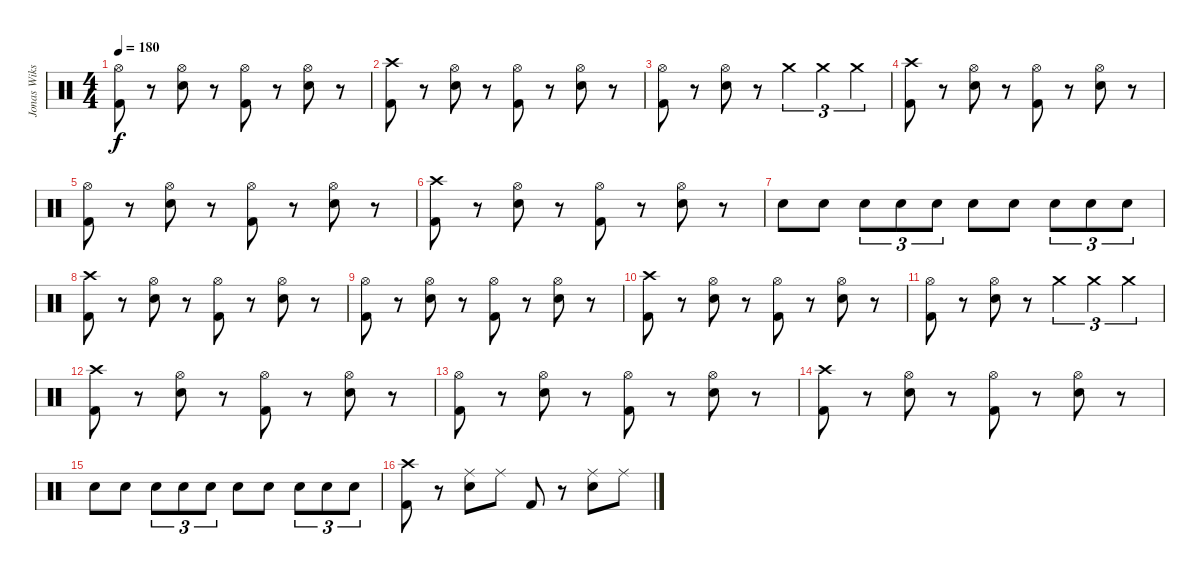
\track ("Jonas Wikstrand" "Jonas Wiks") {instrument percussion}
\staff {score}
\articulation defaults
\ts (4 4)
\tempo 180
\clef neutral
\ks c
("Hi-Hat (open)" "Kick (hit) 2").8{dy f} r.8 ("Hi-Hat (open)" "Snare (hit) 2").8 r.8 ("Hi-Hat (open)" "Kick (hit) 2").8 r.8 ("Hi-Hat (open)" "Snare (hit) 2").8 r.8 |
("Crash high (hit)" "Kick (hit) 2").8 r.8 ("Hi-Hat (open)" "Snare (hit) 2").8 r.8 ("Hi-Hat (open)" "Kick (hit) 2").8 r.8 ("Hi-Hat (open)" "Snare (hit) 2").8 r.8 |
("Hi-Hat (open)" "Kick (hit) 2").8 r.8 ("Hi-Hat (open)" "Snare (hit) 2").8 r.8 "Crash medium (hit)".4{tu (3 2)} "Crash medium (hit)".4{tu (3 2)} "Crash medium (hit)".4{tu (3 2)} |
("Crash high (hit)" "Kick (hit) 2").8 r.8 ("Hi-Hat (open)" "Snare (hit) 2").8 r.8 ("Hi-Hat (open)" "Kick (hit) 2").8 r.8 ("Hi-Hat (open)" "Snare (hit) 2").8 r.8 |
("Hi-Hat (open)" "Kick (hit) 2").8 r.8 ("Hi-Hat (open)" "Snare (hit) 2").8 r.8 ("Hi-Hat (open)" "Kick (hit) 2").8 r.8 ("Hi-Hat (open)" "Snare (hit) 2").8 r.8 |
("Crash high (hit)" "Kick (hit) 2").8 r.8 ("Hi-Hat (open)" "Snare (hit) 2").8 r.8 ("Hi-Hat (open)" "Kick (hit) 2").8 r.8 ("Hi-Hat (open)" "Snare (hit) 2").8 r.8 |
"Snare (hit) 2".8 "Snare (hit) 2".8 "Snare (hit) 2".8{tu (3 2)} "Snare (hit) 2".8{tu (3 2)} "Snare (hit) 2".8{tu (3 2)} "Snare (hit) 2".8 "Snare (hit) 2".8 "Snare (hit) 2".8{tu (3 2)} "Snare (hit) 2".8{tu (3 2)} "Snare (hit) 2".8{tu (3 2)} |
("Crash high (hit)" "Kick (hit) 2").8 r.8 ("Hi-Hat (open)" "Snare (hit) 2").8 r.8 ("Hi-Hat (open)" "Kick (hit) 2").8 r.8 ("Hi-Hat (open)" "Snare (hit) 2").8 r.8 |
("Hi-Hat (open)" "Kick (hit) 2").8 r.8 ("Hi-Hat (open)" "Snare (hit) 2").8 r.8 ("Hi-Hat (open)" "Kick (hit) 2").8 r.8 ("Hi-Hat (open)" "Snare (hit) 2").8 r.8 |
("Crash high (hit)" "Kick (hit) 2").8 r.8 ("Hi-Hat (open)" "Snare (hit) 2").8 r.8 ("Hi-Hat (open)" "Kick (hit) 2").8 r.8 ("Hi-Hat (open)" "Snare (hit) 2").8 r.8 |
("Hi-Hat (open)" "Kick (hit) 2").8 r.8 ("Hi-Hat (open)" "Snare (hit) 2").8 r.8 "Crash medium (hit)".4{tu (3 2)} "Crash medium (hit)".4{tu (3 2)} "Crash medium (hit)".4{tu (3 2)} |
("Crash high (hit)" "Kick (hit) 2").8 r.8 ("Hi-Hat (open)" "Snare (hit) 2").8 r.8 ("Hi-Hat (open)" "Kick (hit) 2").8 r.8 ("Hi-Hat (open)" "Snare (hit) 2").8 r.8 |
("Hi-Hat (open)" "Kick (hit) 2").8 r.8 ("Hi-Hat (open)" "Snare (hit) 2").8 r.8 ("Hi-Hat (open)" "Kick (hit) 2").8 r.8 ("Hi-Hat (open)" "Snare (hit) 2").8 r.8 |
("Crash high (hit)" "Kick (hit) 2").8 r.8 ("Hi-Hat (open)" "Snare (hit) 2").8 r.8 ("Hi-Hat (open)" "Kick (hit) 2").8 r.8 ("Hi-Hat (open)" "Snare (hit) 2").8 r.8 |
"Snare (hit) 2".8 "Snare (hit) 2".8 "Snare (hit) 2".8{tu (3 2)} "Snare (hit) 2".8{tu (3 2)} "Snare (hit) 2".8{tu (3 2)} "Snare (hit) 2".8 "Snare (hit) 2".8 "Snare (hit) 2".8{tu (3 2)} "Snare (hit) 2".8{tu (3 2)} "Snare (hit) 2".8{tu (3 2)} |
("Crash high (hit)" "Kick (hit) 2").8 r.8 ("Ride (middle)" "Snare (hit) 2").8 "Ride (middle)".8 "Kick (hit) 2".8 r.8 ("Ride (middle)" "Snare (hit) 2").8 "Ride (middle)".8
